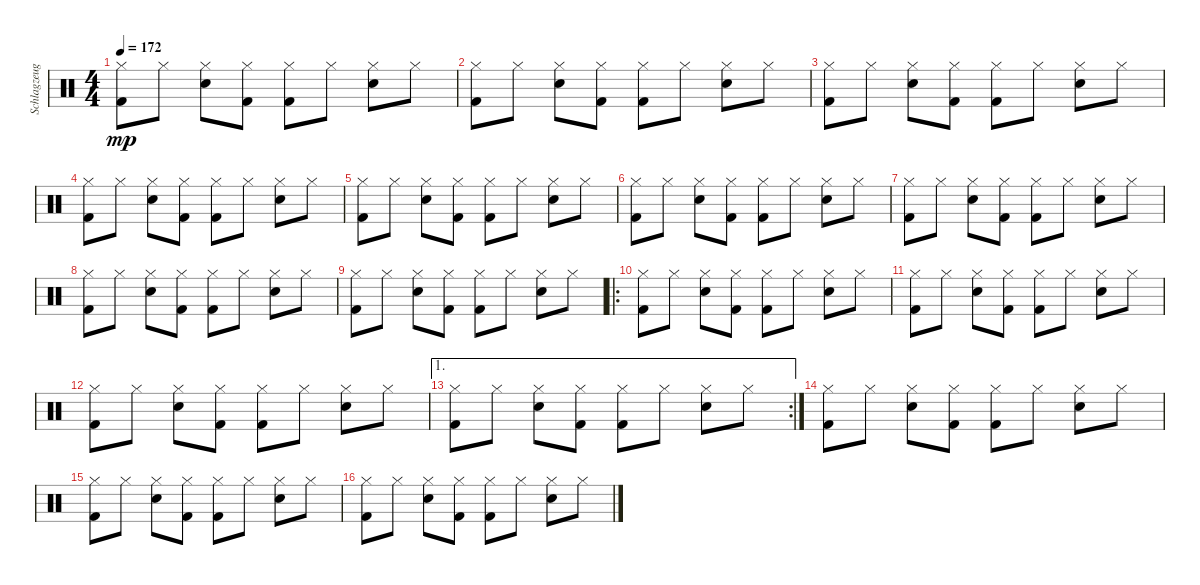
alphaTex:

\track ("Schlagzeug" "Schlagzeug") {instrument percussion}
\staff {score}
\articulation defaults
\ts (4 4)
\tempo 172
\clef neutral
\ks c
("Hi-Hat (closed)" "Kick (hit) 2").8{dy mp} "Hi-Hat (closed)".8 ("Hi-Hat (closed)" "Electric Snare (hit)").8 ("Hi-Hat (closed)" "Kick (hit) 2").8 ("Hi-Hat (closed)" "Kick (hit) 2").8 "Hi-Hat (closed)".8 ("Hi-Hat (closed)" "Electric Snare (hit)").8 "Hi-Hat (closed)".8 |
("Hi-Hat (closed)" "Kick (hit) 2").8 "Hi-Hat (closed)".8 ("Hi-Hat (closed)" "Electric Snare (hit)").8 ("Hi-Hat (closed)" "Kick (hit) 2").8 ("Hi-Hat (closed)" "Kick (hit) 2").8 "Hi-Hat (closed)".8 ("Hi-Hat (closed)" "Electric Snare (hit)").8 "Hi-Hat (closed)".8 |
("Hi-Hat (closed)" "Kick (hit) 2").8 "Hi-Hat (closed)".8 ("Hi-Hat (closed)" "Electric Snare (hit)").8 ("Hi-Hat (closed)" "Kick (hit) 2").8 ("Hi-Hat (closed)" "Kick (hit) 2").8 "Hi-Hat (closed)".8 ("Hi-Hat (closed)" "Electric Snare (hit)").8 "Hi-Hat (closed)".8 |
("Hi-Hat (closed)" "Kick (hit) 2").8 "Hi-Hat (closed)".8 ("Hi-Hat (closed)" "Electric Snare (hit)").8 ("Hi-Hat (closed)" "Kick (hit) 2").8 ("Hi-Hat (closed)" "Kick (hit) 2").8 "Hi-Hat (closed)".8 ("Hi-Hat (closed)" "Electric Snare (hit)").8 "Hi-Hat (closed)".8 |
("Hi-Hat (closed)" "Kick (hit) 2").8 "Hi-Hat (closed)".8 ("Hi-Hat (closed)" "Electric Snare (hit)").8 ("Hi-Hat (closed)" "Kick (hit) 2").8 ("Hi-Hat (closed)" "Kick (hit) 2").8 "Hi-Hat (closed)".8 ("Hi-Hat (closed)" "Electric Snare (hit)").8 "Hi-Hat (closed)".8 |
("Hi-Hat (closed)" "Kick (hit) 2").8 "Hi-Hat (closed)".8 ("Hi-Hat (closed)" "Electric Snare (hit)").8 ("Hi-Hat (closed)" "Kick (hit) 2").8 ("Hi-Hat (closed)" "Kick (hit) 2").8 "Hi-Hat (closed)".8 ("Hi-Hat (closed)" "Electric Snare (hit)").8 "Hi-Hat (closed)".8 |
("Hi-Hat (closed)" "Kick (hit) 2").8 "Hi-Hat (closed)".8 ("Hi-Hat (closed)" "Electric Snare (hit)").8 ("Hi-Hat (closed)" "Kick (hit) 2").8 ("Hi-Hat (closed)" "Kick (hit) 2").8 "Hi-Hat (closed)".8 ("Hi-Hat (closed)" "Electric Snare (hit)").8 "Hi-Hat (closed)".8 |
("Hi-Hat (closed)" "Kick (hit) 2").8 "Hi-Hat (closed)".8 ("Hi-Hat (closed)" "Electric Snare (hit)").8 ("Hi-Hat (closed)" "Kick (hit) 2").8 ("Hi-Hat (closed)" "Kick (hit) 2").8 "Hi-Hat (closed)".8 ("Hi-Hat (closed)" "Electric Snare (hit)").8 "Hi-Hat (closed)".8 |
("Hi-Hat (closed)" "Kick (hit) 2").8 "Hi-Hat (closed)".8 ("Hi-Hat (closed)" "Electric Snare (hit)").8 ("Hi-Hat (closed)" "Kick (hit) 2").8 ("Hi-Hat (closed)" "Kick (hit) 2").8 "Hi-Hat (closed)".8 ("Hi-Hat (closed)" "Electric Snare (hit)").8 "Hi-Hat (closed)".8 |
\ro
("Hi-Hat (closed)" "Kick (hit) 2").8 "Hi-Hat (closed)".8 ("Hi-Hat (closed)" "Electric Snare (hit)").8 ("Hi-Hat (closed)" "Kick (hit) 2").8 ("Hi-Hat (closed)" "Kick (hit) 2").8 "Hi-Hat (closed)".8 ("Hi-Hat (closed)" "Electric Snare (hit)").8 "Hi-Hat (closed)".8 |
("Hi-Hat (closed)" "Kick (hit) 2").8 "Hi-Hat (closed)".8 ("Hi-Hat (closed)" "Electric Snare (hit)").8 ("Hi-Hat (closed)" "Kick (hit) 2").8 ("Hi-Hat (closed)" "Kick (hit) 2").8 "Hi-Hat (closed)".8 ("Hi-Hat (closed)" "Electric Snare (hit)").8 "Hi-Hat (closed)".8 |
("Hi-Hat (closed)" "Kick (hit) 2").8 "Hi-Hat (closed)".8 ("Hi-Hat (closed)" "Electric Snare (hit)").8 ("Hi-Hat (closed)" "Kick (hit) 2").8 ("Hi-Hat (closed)" "Kick (hit) 2").8 "Hi-Hat (closed)".8 ("Hi-Hat (closed)" "Electric Snare (hit)").8 "Hi-Hat (closed)".8 |
\ae 1
\rc 2
("Hi-Hat (closed)" "Kick (hit) 2").8 "Hi-Hat (closed)".8 ("Hi-Hat (closed)" "Electric Snare (hit)").8 ("Hi-Hat (closed)" "Kick (hit) 2").8 ("Hi-Hat (closed)" "Kick (hit) 2").8 "Hi-Hat (closed)".8 ("Hi-Hat (closed)" "Electric Snare (hit)").8 "Hi-Hat (closed)".8 |
("Hi-Hat (closed)" "Kick (hit) 2").8 "Hi-Hat (closed)".8 ("Hi-Hat (closed)" "Electric Snare (hit)").8 ("Hi-Hat (closed)" "Kick (hit) 2").8 ("Hi-Hat (closed)" "Kick (hit) 2").8 "Hi-Hat (closed)".8 ("Hi-Hat (closed)" "Electric Snare (hit)").8 "Hi-Hat (closed)".8 |
("Hi-Hat (closed)" "Kick (hit) 2").8 "Hi-Hat (closed)".8 ("Hi-Hat (closed)" "Electric Snare (hit)").8 ("Hi-Hat (closed)" "Kick (hit) 2").8 ("Hi-Hat (closed)" "Kick (hit) 2").8 "Hi-Hat (closed)".8 ("Hi-Hat (closed)" "Electric Snare (hit)").8 "Hi-Hat (closed)".8 |
("Hi-Hat (closed)" "Kick (hit) 2").8 "Hi-Hat (closed)".8 ("Hi-Hat (closed)" "Electric Snare (hit)").8 ("Hi-Hat (closed)" "Kick (hit) 2").8 ("Hi-Hat (closed)" "Kick (hit) 2").8 "Hi-Hat (closed)".8 ("Hi-Hat (closed)" "Electric Snare (hit)").8 "Hi-Hat (closed)".8
